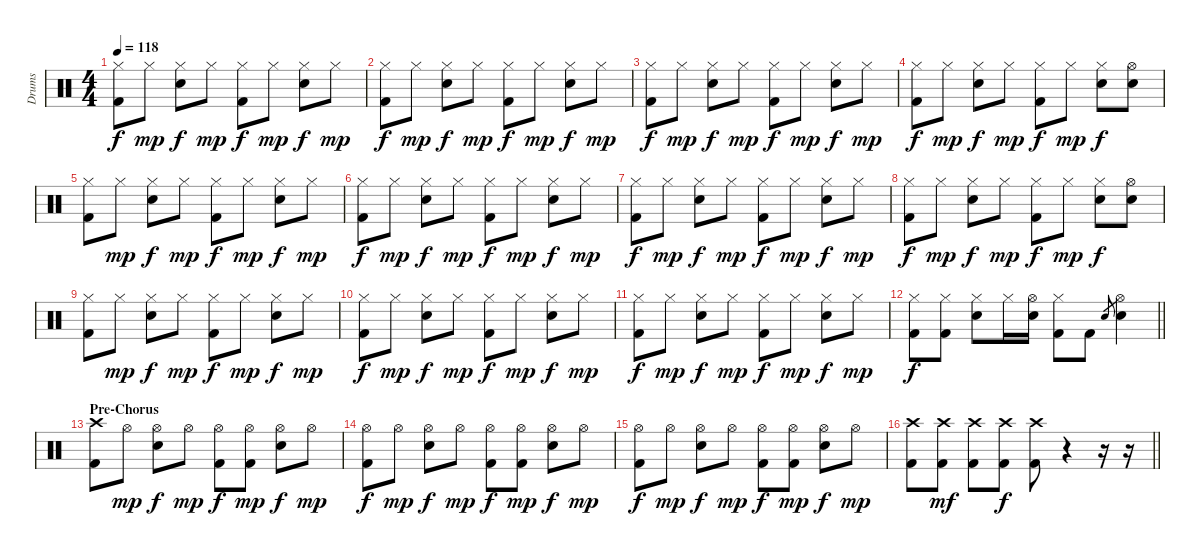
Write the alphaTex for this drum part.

\track ("Drums" "Drums") {instrument percussion}
\staff {score}
\articulation defaults
\ts (4 4)
\tempo 118
\clef neutral
\ks c
("Hi-Hat (closed)" "Kick (hit) 2").8{dy f} "Hi-Hat (closed)".8{dy mp} ("Hi-Hat (closed)" "Snare (hit) 2").8{dy f} "Hi-Hat (closed)".8{dy mp} ("Hi-Hat (closed)" "Kick (hit) 2").8{dy f} "Hi-Hat (closed)".8{dy mp} ("Hi-Hat (closed)" "Snare (hit) 2").8{dy f} "Hi-Hat (closed)".8{dy mp} |
("Hi-Hat (closed)" "Kick (hit) 2").8{dy f} "Hi-Hat (closed)".8{dy mp} ("Hi-Hat (closed)" "Snare (hit) 2").8{dy f} "Hi-Hat (closed)".8{dy mp} ("Hi-Hat (closed)" "Kick (hit) 2").8{dy f} "Hi-Hat (closed)".8{dy mp} ("Hi-Hat (closed)" "Snare (hit) 2").8{dy f} "Hi-Hat (closed)".8{dy mp} |
("Hi-Hat (closed)" "Kick (hit) 2").8{dy f} "Hi-Hat (closed)".8{dy mp} ("Hi-Hat (closed)" "Snare (hit) 2").8{dy f} "Hi-Hat (closed)".8{dy mp} ("Hi-Hat (closed)" "Kick (hit) 2").8{dy f} "Hi-Hat (closed)".8{dy mp} ("Hi-Hat (closed)" "Snare (hit) 2").8{dy f} "Hi-Hat (closed)".8{dy mp} |
("Hi-Hat (closed)" "Kick (hit) 2").8{dy f} "Hi-Hat (closed)".8{dy mp} ("Hi-Hat (closed)" "Snare (hit) 2").8{dy f} "Hi-Hat (closed)".8{dy mp} ("Hi-Hat (closed)" "Kick (hit) 2").8{dy f} "Hi-Hat (closed)".8{dy mp} ("Hi-Hat (closed)" "Snare (hit) 2").8{dy f} ("Hi-Hat (open)" "Snare (hit) 2").8 |
("Hi-Hat (closed)" "Kick (hit) 2").8 "Hi-Hat (closed)".8{dy mp} ("Hi-Hat (closed)" "Snare (hit) 2").8{dy f} "Hi-Hat (closed)".8{dy mp} ("Hi-Hat (closed)" "Kick (hit) 2").8{dy f} "Hi-Hat (closed)".8{dy mp} ("Hi-Hat (closed)" "Snare (hit) 2").8{dy f} "Hi-Hat (closed)".8{dy mp} |
("Hi-Hat (closed)" "Kick (hit) 2").8{dy f} "Hi-Hat (closed)".8{dy mp} ("Hi-Hat (closed)" "Snare (hit) 2").8{dy f} "Hi-Hat (closed)".8{dy mp} ("Hi-Hat (closed)" "Kick (hit) 2").8{dy f} "Hi-Hat (closed)".8{dy mp} ("Hi-Hat (closed)" "Snare (hit) 2").8{dy f} "Hi-Hat (closed)".8{dy mp} |
("Hi-Hat (closed)" "Kick (hit) 2").8{dy f} "Hi-Hat (closed)".8{dy mp} ("Hi-Hat (closed)" "Snare (hit) 2").8{dy f} "Hi-Hat (closed)".8{dy mp} ("Hi-Hat (closed)" "Kick (hit) 2").8{dy f} "Hi-Hat (closed)".8{dy mp} ("Hi-Hat (closed)" "Snare (hit) 2").8{dy f} "Hi-Hat (closed)".8{dy mp} |
("Hi-Hat (closed)" "Kick (hit) 2").8{dy f} "Hi-Hat (closed)".8{dy mp} ("Hi-Hat (closed)" "Snare (hit) 2").8{dy f} "Hi-Hat (closed)".8{dy mp} ("Hi-Hat (closed)" "Kick (hit) 2").8{dy f} "Hi-Hat (closed)".8{dy mp} ("Hi-Hat (closed)" "Snare (hit) 2").8{dy f} ("Hi-Hat (open)" "Snare (hit) 2").8 |
("Hi-Hat (closed)" "Kick (hit) 2").8 "Hi-Hat (closed)".8{dy mp} ("Hi-Hat (closed)" "Snare (hit) 2").8{dy f} "Hi-Hat (closed)".8{dy mp} ("Hi-Hat (closed)" "Kick (hit) 2").8{dy f} "Hi-Hat (closed)".8{dy mp} ("Hi-Hat (closed)" "Snare (hit) 2").8{dy f} "Hi-Hat (closed)".8{dy mp} |
("Hi-Hat (closed)" "Kick (hit) 2").8{dy f} "Hi-Hat (closed)".8{dy mp} ("Hi-Hat (closed)" "Snare (hit) 2").8{dy f} "Hi-Hat (closed)".8{dy mp} ("Hi-Hat (closed)" "Kick (hit) 2").8{dy f} "Hi-Hat (closed)".8{dy mp} ("Hi-Hat (closed)" "Snare (hit) 2").8{dy f} "Hi-Hat (closed)".8{dy mp} |
("Hi-Hat (closed)" "Kick (hit) 2").8{dy f} "Hi-Hat (closed)".8{dy mp} ("Hi-Hat (closed)" "Snare (hit) 2").8{dy f} "Hi-Hat (closed)".8{dy mp} ("Hi-Hat (closed)" "Kick (hit) 2").8{dy f} "Hi-Hat (closed)".8{dy mp} ("Hi-Hat (closed)" "Snare (hit) 2").8{dy f} "Hi-Hat (closed)".8{dy mp} |
\barLineRight lightlight
("Hi-Hat (closed)" "Kick (hit) 2").8{dy f} ("Hi-Hat (closed)" "Kick (hit) 2").8 ("Hi-Hat (closed)" "Snare (hit) 2").8 "Hi-Hat (closed)".16 ("Hi-Hat (open)" "Snare (hit) 2").16 ("Hi-Hat (closed)" "Kick (hit) 2").8 "Kick (hit) 2".8 "Snare (hit) 2".8{gr} ("Hi-Hat (open)" "Snare (hit) 2").4 |
\section ("" "Pre-Chorus")
("Crash high (hit)" "Kick (hit) 2").8 "Hi-Hat (open)".8{dy mp} ("Hi-Hat (open)" "Snare (hit) 2").8{dy f} "Hi-Hat (open)".8{dy mp} ("Hi-Hat (open)" "Kick (hit) 2").8{dy f} ("Hi-Hat (open)" "Kick (hit) 2").8{dy mp} ("Hi-Hat (open)" "Snare (hit) 2").8{dy f} "Hi-Hat (open)".8{dy mp} |
("Hi-Hat (open)" "Kick (hit) 2").8{dy f} "Hi-Hat (open)".8{dy mp} ("Hi-Hat (open)" "Snare (hit) 2").8{dy f} "Hi-Hat (open)".8{dy mp} ("Hi-Hat (open)" "Kick (hit) 2").8{dy f} ("Hi-Hat (open)" "Kick (hit) 2").8{dy mp} ("Hi-Hat (open)" "Snare (hit) 2").8{dy f} "Hi-Hat (open)".8{dy mp} |
("Hi-Hat (open)" "Kick (hit) 2").8{dy f} "Hi-Hat (open)".8{dy mp} ("Hi-Hat (open)" "Snare (hit) 2").8{dy f} "Hi-Hat (open)".8{dy mp} ("Hi-Hat (open)" "Kick (hit) 2").8{dy f} ("Hi-Hat (open)" "Kick (hit) 2").8{dy mp} ("Hi-Hat (open)" "Snare (hit) 2").8{dy f} "Hi-Hat (open)".8{dy mp} |
\barLineRight lightlight
("Crash high (hit)" "Kick (hit) 2").8 ("Crash high (hit)" "Kick (hit) 2").8{dy mf} ("Crash high (hit)" "Kick (hit) 2").8 ("Crash high (hit)" "Kick (hit) 2").8{dy f} ("Crash high (hit)" "Kick (hit) 2").8 r.4 r.16 r.16
